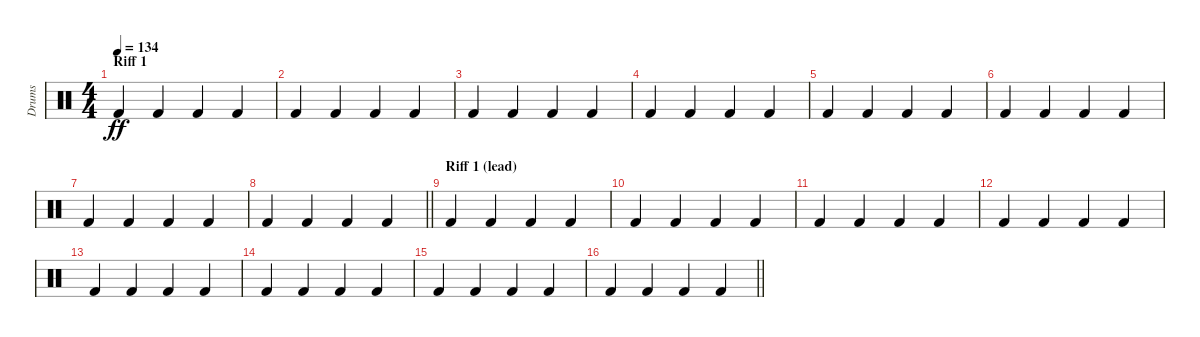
\track ("Drums" "Drums") {instrument percussion}
\staff {score}
\articulation defaults
\ts (4 4)
\section ("" "Riff 1")
\tempo 134
\clef neutral
\ks c "Kick (hit) 2".4{dy ff} "Kick (hit) 2".4 "Kick (hit) 2".4 "Kick (hit) 2".4
|
"Kick (hit) 2".4 "Kick (hit) 2".4 "Kick (hit) 2".4 "Kick (hit) 2".4 |
"Kick (hit) 2".4 "Kick (hit) 2".4 "Kick (hit) 2".4 "Kick (hit) 2".4 |
"Kick (hit) 2".4 "Kick (hit) 2".4 "Kick (hit) 2".4 "Kick (hit) 2".4 |
"Kick (hit) 2".4 "Kick (hit) 2".4 "Kick (hit) 2".4 "Kick (hit) 2".4 |
"Kick (hit) 2".4 "Kick (hit) 2".4 "Kick (hit) 2".4 "Kick (hit) 2".4 |
"Kick (hit) 2".4 "Kick (hit) 2".4 "Kick (hit) 2".4 "Kick (hit) 2".4 |
\barLineRight lightlight "Kick (hit) 2".4 "Kick (hit) 2".4 "Kick (hit) 2".4 "Kick (hit) 2".4
|
\section ("" "Riff 1 (lead)")
"Kick (hit) 2".4 "Kick (hit) 2".4 "Kick (hit) 2".4 "Kick (hit) 2".4 |
"Kick (hit) 2".4 "Kick (hit) 2".4 "Kick (hit) 2".4 "Kick (hit) 2".4 |
"Kick (hit) 2".4 "Kick (hit) 2".4 "Kick (hit) 2".4 "Kick (hit) 2".4 |
"Kick (hit) 2".4 "Kick (hit) 2".4 "Kick (hit) 2".4 "Kick (hit) 2".4 |
"Kick (hit) 2".4 "Kick (hit) 2".4 "Kick (hit) 2".4 "Kick (hit) 2".4 |
"Kick (hit) 2".4 "Kick (hit) 2".4 "Kick (hit) 2".4 "Kick (hit) 2".4 |
"Kick (hit) 2".4 "Kick (hit) 2".4 "Kick (hit) 2".4 "Kick (hit) 2".4 |
\barLineRight lightlight "Kick (hit) 2".4 "Kick (hit) 2".4 "Kick (hit) 2".4 "Kick (hit) 2".4
